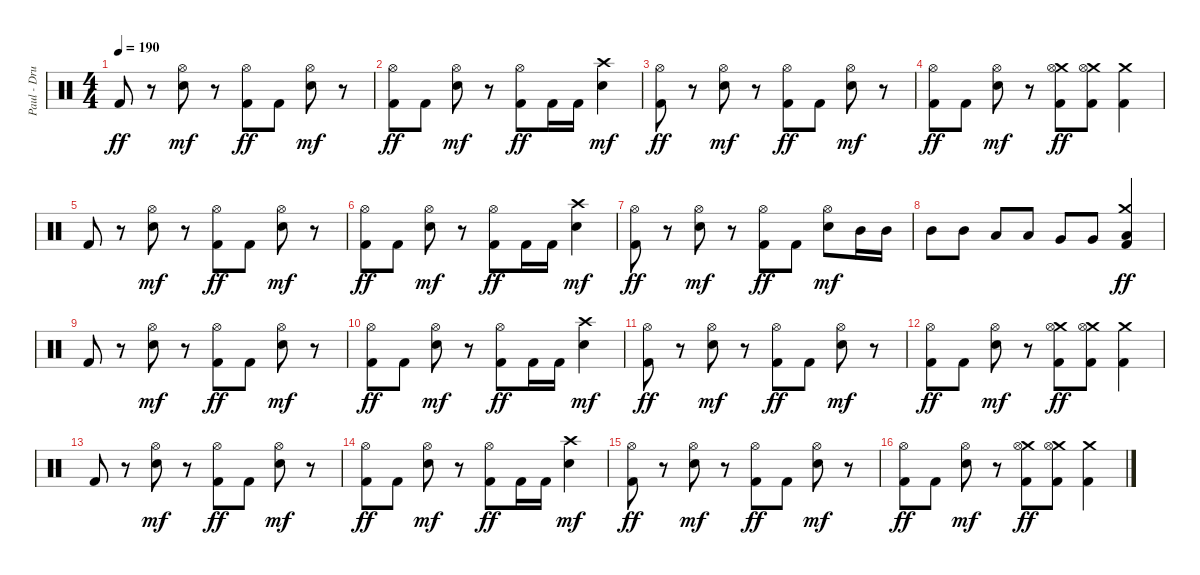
\track ("Paul - Drums" "Paul - Dru") {instrument percussion}
\staff {score}
\articulation defaults
\ts (4 4)
\tempo 190
\clef neutral
\ks c "Kick (hit) 2".8{dy ff}
r.8 ("Hi-Hat (open)" "Electric Snare (hit)").8{dy mf} r.8 ("Hi-Hat (open)" "Kick (hit) 2").8{dy ff} "Kick (hit) 2".8 ("Hi-Hat (open)" "Electric Snare (hit)").8{dy mf} r.8 |
("Hi-Hat (open)" "Kick (hit) 2").8{dy ff} "Kick (hit) 2".8 ("Hi-Hat (open)" "Electric Snare (hit)").8{dy mf} r.8 ("Hi-Hat (open)" "Kick (hit) 2").8{dy ff} "Kick (hit) 2".16 "Kick (hit) 2".16 ("Crash high (hit)" "Electric Snare (hit)").4{dy mf} |
("Hi-Hat (open)" "Kick (hit) 2").8{dy ff} r.8 ("Hi-Hat (open)" "Electric Snare (hit)").8{dy mf} r.8 ("Hi-Hat (open)" "Kick (hit) 2").8{dy ff} "Kick (hit) 2".8 ("Hi-Hat (open)" "Electric Snare (hit)").8{dy mf} r.8 |
("Hi-Hat (open)" "Kick (hit) 2").8{dy ff} "Kick (hit) 2".8 ("Hi-Hat (open)" "Electric Snare (hit)").8{dy mf} r.8 ("Crash medium (hit)" "Hi-Hat (open)" "Kick (hit) 2").8{dy ff} ("Crash medium (hit)" "Hi-Hat (open)" "Kick (hit) 2").8 ("Crash medium (hit)" "Kick (hit) 2").4 |
"Kick (hit) 2".8 r.8 ("Hi-Hat (open)" "Electric Snare (hit)").8{dy mf} r.8 ("Hi-Hat (open)" "Kick (hit) 2").8{dy ff} "Kick (hit) 2".8 ("Hi-Hat (open)" "Electric Snare (hit)").8{dy mf} r.8 |
("Hi-Hat (open)" "Kick (hit) 2").8{dy ff} "Kick (hit) 2".8 ("Hi-Hat (open)" "Electric Snare (hit)").8{dy mf} r.8 ("Hi-Hat (open)" "Kick (hit) 2").8{dy ff} "Kick (hit) 2".16 "Kick (hit) 2".16 ("Crash high (hit)" "Electric Snare (hit)").4{dy mf} |
("Hi-Hat (open)" "Kick (hit) 2").8{dy ff} r.8 ("Hi-Hat (open)" "Electric Snare (hit)").8{dy mf} r.8 ("Hi-Hat (open)" "Kick (hit) 2").8{dy ff} "Kick (hit) 2".8 ("Hi-Hat (open)" "Electric Snare (hit)").8{dy mf} "Mid Tom (hit)".16 "Mid Tom (hit)".16 |
"Mid Tom (hit)".8 "Mid Tom (hit)".8 "Low Tom (hit)".8 "Low Tom (hit)".8 "Very Low Tom (hit)".8 "Very Low Tom (hit)".8 ("Crash medium (hit)" "Low Floor Tom (hit)" "Kick (hit) 2").4{dy ff} |
"Kick (hit) 2".8 r.8 ("Hi-Hat (open)" "Electric Snare (hit)").8{dy mf} r.8 ("Hi-Hat (open)" "Kick (hit) 2").8{dy ff} "Kick (hit) 2".8 ("Hi-Hat (open)" "Electric Snare (hit)").8{dy mf} r.8 |
("Hi-Hat (open)" "Kick (hit) 2").8{dy ff} "Kick (hit) 2".8 ("Hi-Hat (open)" "Electric Snare (hit)").8{dy mf} r.8 ("Hi-Hat (open)" "Kick (hit) 2").8{dy ff} "Kick (hit) 2".16 "Kick (hit) 2".16 ("Crash high (hit)" "Electric Snare (hit)").4{dy mf} |
("Hi-Hat (open)" "Kick (hit) 2").8{dy ff} r.8 ("Hi-Hat (open)" "Electric Snare (hit)").8{dy mf} r.8 ("Hi-Hat (open)" "Kick (hit) 2").8{dy ff} "Kick (hit) 2".8 ("Hi-Hat (open)" "Electric Snare (hit)").8{dy mf} r.8 |
("Hi-Hat (open)" "Kick (hit) 2").8{dy ff} "Kick (hit) 2".8 ("Hi-Hat (open)" "Electric Snare (hit)").8{dy mf} r.8 ("Crash medium (hit)" "Hi-Hat (open)" "Kick (hit) 2").8{dy ff} ("Crash medium (hit)" "Hi-Hat (open)" "Kick (hit) 2").8 ("Crash medium (hit)" "Kick (hit) 2").4 |
"Kick (hit) 2".8 r.8 ("Hi-Hat (open)" "Electric Snare (hit)").8{dy mf} r.8 ("Hi-Hat (open)" "Kick (hit) 2").8{dy ff} "Kick (hit) 2".8 ("Hi-Hat (open)" "Electric Snare (hit)").8{dy mf} r.8 |
("Hi-Hat (open)" "Kick (hit) 2").8{dy ff} "Kick (hit) 2".8 ("Hi-Hat (open)" "Electric Snare (hit)").8{dy mf} r.8 ("Hi-Hat (open)" "Kick (hit) 2").8{dy ff} "Kick (hit) 2".16 "Kick (hit) 2".16 ("Crash high (hit)" "Electric Snare (hit)").4{dy mf} |
("Hi-Hat (open)" "Kick (hit) 2").8{dy ff} r.8 ("Hi-Hat (open)" "Electric Snare (hit)").8{dy mf} r.8 ("Hi-Hat (open)" "Kick (hit) 2").8{dy ff} "Kick (hit) 2".8 ("Hi-Hat (open)" "Electric Snare (hit)").8{dy mf} r.8 |
("Hi-Hat (open)" "Kick (hit) 2").8{dy ff} "Kick (hit) 2".8 ("Hi-Hat (open)" "Electric Snare (hit)").8{dy mf} r.8 ("Crash medium (hit)" "Hi-Hat (open)" "Kick (hit) 2").8{dy ff} ("Crash medium (hit)" "Hi-Hat (open)" "Kick (hit) 2").8 ("Crash medium (hit)" "Kick (hit) 2").4
